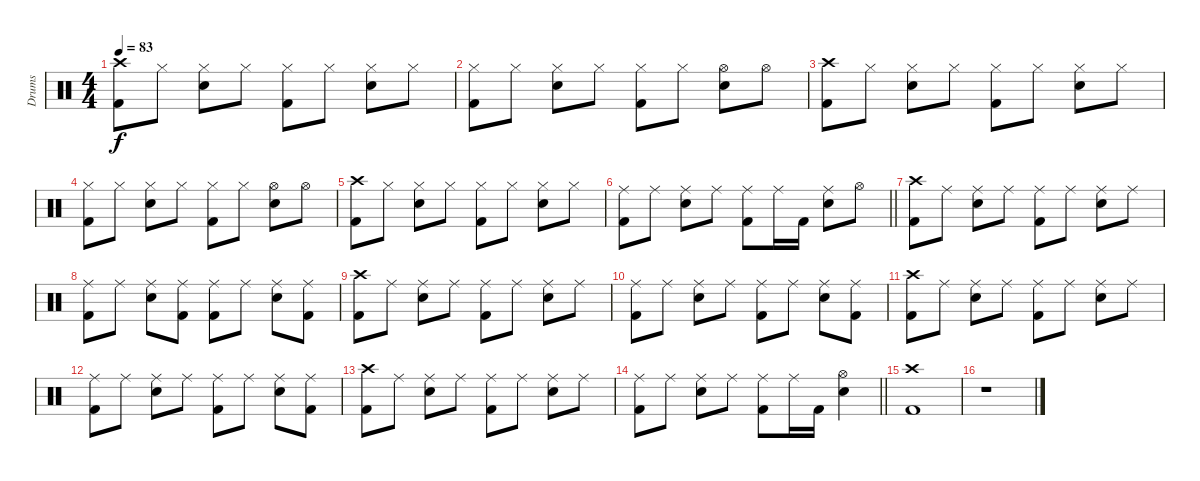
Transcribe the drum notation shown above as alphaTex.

\track ("Drums" "Drums") {instrument percussion}
\staff {score}
\articulation defaults
\ts (4 4)
\tempo 83
\clef neutral
\ks c
("Crash high (hit)" "Kick (hit) 2").8{dy f} "Hi-Hat (closed)".8 ("Hi-Hat (closed)" "Electric Snare (hit)").8 "Hi-Hat (closed)".8 ("Hi-Hat (closed)" "Kick (hit) 2").8 "Hi-Hat (closed)".8 ("Hi-Hat (closed)" "Electric Snare (hit)").8 "Hi-Hat (closed)".8 |
("Hi-Hat (closed)" "Kick (hit) 2").8 "Hi-Hat (closed)".8 ("Hi-Hat (closed)" "Electric Snare (hit)").8 "Hi-Hat (closed)".8 ("Hi-Hat (closed)" "Kick (hit) 2").8 "Hi-Hat (closed)".8 ("Hi-Hat (open)" "Electric Snare (hit)").8 "Hi-Hat (open)".8 |
("Crash high (hit)" "Kick (hit) 2").8 "Hi-Hat (closed)".8 ("Hi-Hat (closed)" "Electric Snare (hit)").8 "Hi-Hat (closed)".8 ("Hi-Hat (closed)" "Kick (hit) 2").8 "Hi-Hat (closed)".8 ("Hi-Hat (closed)" "Electric Snare (hit)").8 "Hi-Hat (closed)".8 |
("Hi-Hat (closed)" "Kick (hit) 2").8 "Hi-Hat (closed)".8 ("Hi-Hat (closed)" "Electric Snare (hit)").8 "Hi-Hat (closed)".8 ("Hi-Hat (closed)" "Kick (hit) 2").8 "Hi-Hat (closed)".8 ("Hi-Hat (open)" "Electric Snare (hit)").8 "Hi-Hat (open)".8 |
("Crash high (hit)" "Kick (hit) 2").8 "Hi-Hat (closed)".8 ("Hi-Hat (closed)" "Electric Snare (hit)").8 "Hi-Hat (closed)".8 ("Hi-Hat (closed)" "Kick (hit) 2").8 "Hi-Hat (closed)".8 ("Hi-Hat (closed)" "Electric Snare (hit)").8 "Hi-Hat (closed)".8 |
\barLineRight lightlight
("Ride (middle)" "Kick (hit) 2").8 "Ride (middle)".8 ("Ride (middle)" "Electric Snare (hit)").8 "Ride (middle)".8 ("Ride (middle)" "Kick (hit) 2").8 "Ride (middle)".16 "Kick (hit) 2".16 ("Ride (middle)" "Electric Snare (hit)").8 "Hi-Hat (open)".8 |
("Crash high (hit)" "Kick (hit) 2").8 "Ride (middle)".8 ("Ride (middle)" "Electric Snare (hit)").8 "Ride (middle)".8 ("Ride (middle)" "Kick (hit) 2").8 "Ride (middle)".8 ("Ride (middle)" "Electric Snare (hit)").8 "Ride (middle)".8 |
("Ride (middle)" "Kick (hit) 2").8 "Ride (middle)".8 ("Ride (middle)" "Electric Snare (hit)").8 ("Ride (middle)" "Kick (hit) 2").8 ("Ride (middle)" "Kick (hit) 2").8 "Ride (middle)".8 ("Ride (middle)" "Electric Snare (hit)").8 ("Ride (middle)" "Kick (hit) 2").8 |
("Crash high (hit)" "Kick (hit) 2").8 "Ride (middle)".8 ("Ride (middle)" "Electric Snare (hit)").8 "Ride (middle)".8 ("Ride (middle)" "Kick (hit) 2").8 "Ride (middle)".8 ("Ride (middle)" "Electric Snare (hit)").8 "Ride (middle)".8 |
("Ride (middle)" "Kick (hit) 2").8 "Ride (middle)".8 ("Ride (middle)" "Electric Snare (hit)").8 "Ride (middle)".8 ("Ride (middle)" "Kick (hit) 2").8 "Ride (middle)".8 ("Ride (middle)" "Electric Snare (hit)").8 ("Ride (middle)" "Kick (hit) 2").8 |
("Crash high (hit)" "Kick (hit) 2").8 "Ride (middle)".8 ("Ride (middle)" "Electric Snare (hit)").8 "Ride (middle)".8 ("Ride (middle)" "Kick (hit) 2").8 "Ride (middle)".8 ("Ride (middle)" "Electric Snare (hit)").8 "Ride (middle)".8 |
("Ride (middle)" "Kick (hit) 2").8 "Ride (middle)".8 ("Ride (middle)" "Electric Snare (hit)").8 "Ride (middle)".8 ("Ride (middle)" "Kick (hit) 2").8 "Ride (middle)".8 ("Ride (middle)" "Electric Snare (hit)").8 ("Ride (middle)" "Kick (hit) 2").8 |
("Crash high (hit)" "Kick (hit) 2").8 "Ride (middle)".8 ("Ride (middle)" "Electric Snare (hit)").8 "Ride (middle)".8 ("Ride (middle)" "Kick (hit) 2").8 "Ride (middle)".8 ("Ride (middle)" "Electric Snare (hit)").8 "Ride (middle)".8 |
\barLineRight lightlight
("Ride (middle)" "Kick (hit) 2").8 "Ride (middle)".8 ("Ride (middle)" "Electric Snare (hit)").8 "Ride (middle)".8 ("Ride (middle)" "Kick (hit) 2").8 "Ride (middle)".16 "Kick (hit) 2".16 ("Hi-Hat (open)" "Electric Snare (hit)").4 |
("Crash high (hit)" "Kick (hit) 2").1 |
r.1
